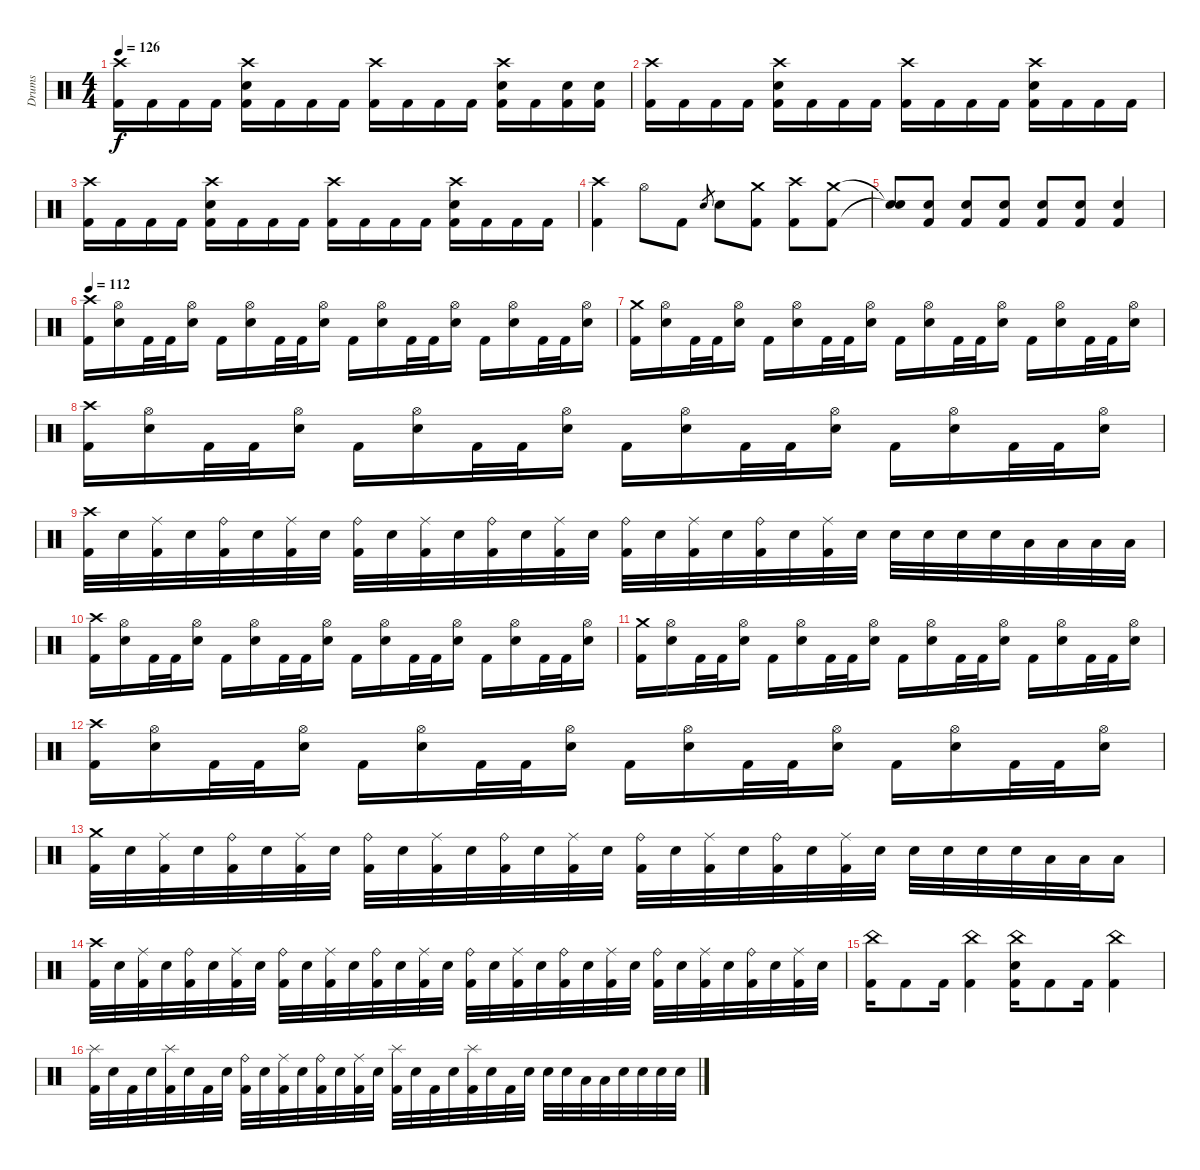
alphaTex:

\track ("Drums" "Drums") {instrument percussion}
\staff {score}
\articulation defaults
\ts (4 4)
\tempo 126
\clef neutral
\ks c
("Crash high (hit)" "Kick (hit) 2").16{dy f} "Kick (hit) 2".16 "Kick (hit) 2".16 "Kick (hit) 2".16 ("Crash high (hit)" "Electric Snare (hit)" "Kick (hit) 2").16 "Kick (hit) 2".16 "Kick (hit) 2".16 "Kick (hit) 2".16 ("Crash high (hit)" "Kick (hit) 2").16 "Kick (hit) 2".16 "Kick (hit) 2".16 "Kick (hit) 2".16 ("Crash high (hit)" "Electric Snare (hit)" "Kick (hit) 2").16 "Kick (hit) 2".16 ("Electric Snare (hit)" "Kick (hit) 2").16 ("Electric Snare (hit)" "Kick (hit) 2").16 |
("Crash high (hit)" "Kick (hit) 2").16 "Kick (hit) 2".16 "Kick (hit) 2".16 "Kick (hit) 2".16 ("Crash high (hit)" "Electric Snare (hit)" "Kick (hit) 2").16 "Kick (hit) 2".16 "Kick (hit) 2".16 "Kick (hit) 2".16 ("Crash high (hit)" "Kick (hit) 2").16 "Kick (hit) 2".16 "Kick (hit) 2".16 "Kick (hit) 2".16 ("Crash high (hit)" "Electric Snare (hit)" "Kick (hit) 2").16 "Kick (hit) 2".16 "Kick (hit) 2".16 "Kick (hit) 2".16 |
("Crash high (hit)" "Kick (hit) 2").16 "Kick (hit) 2".16 "Kick (hit) 2".16 "Kick (hit) 2".16 ("Crash high (hit)" "Electric Snare (hit)" "Kick (hit) 2").16 "Kick (hit) 2".16 "Kick (hit) 2".16 "Kick (hit) 2".16 ("Crash high (hit)" "Kick (hit) 2").16 "Kick (hit) 2".16 "Kick (hit) 2".16 "Kick (hit) 2".16 ("Crash high (hit)" "Electric Snare (hit)" "Kick (hit) 2").16 "Kick (hit) 2".16 "Kick (hit) 2".16 "Kick (hit) 2".16 |
("Crash high (hit)" "Kick (hit) 2").4 "Hi-Hat (open)".8 "Kick (hit) 2".8 "Electric Snare (hit)".8{gr} "Electric Snare (hit)".8 ("Crash medium (hit)" "Kick (hit) 2").8 ("Crash high (hit)" "Kick (hit) 2").8 ("Crash medium (hit)" "Kick (hit) 2").8 |
("Snare (hit)"{t} "Snare (hit)"{t}).8 ("Electric Snare (hit)" "Kick (hit) 2").8 ("Electric Snare (hit)" "Kick (hit) 2").8 ("Electric Snare (hit)" "Kick (hit) 2").8 ("Electric Snare (hit)" "Kick (hit) 2").8 ("Electric Snare (hit)" "Kick (hit) 2").8 ("Electric Snare (hit)" "Kick (hit) 2").4 |
\tempo 112
("Crash high (hit)" "Kick (hit) 2").16 ("Hi-Hat (open)" "Electric Snare (hit)").16 "Kick (hit) 2".32 "Kick (hit) 2".32 ("Hi-Hat (open)" "Electric Snare (hit)").16 "Kick (hit) 2".16 ("Hi-Hat (open)" "Electric Snare (hit)").16 "Kick (hit) 2".32 "Kick (hit) 2".32 ("Hi-Hat (open)" "Electric Snare (hit)").16 "Kick (hit) 2".16 ("Hi-Hat (open)" "Electric Snare (hit)").16 "Kick (hit) 2".32 "Kick (hit) 2".32 ("Hi-Hat (open)" "Electric Snare (hit)").16 "Kick (hit) 2".16 ("Hi-Hat (open)" "Electric Snare (hit)").16 "Kick (hit) 2".32 "Kick (hit) 2".32 ("Hi-Hat (open)" "Electric Snare (hit)").16 |
("Crash medium (hit)" "Kick (hit) 2").16 ("Hi-Hat (open)" "Electric Snare (hit)").16 "Kick (hit) 2".32 "Kick (hit) 2".32 ("Hi-Hat (open)" "Electric Snare (hit)").16 "Kick (hit) 2".16 ("Hi-Hat (open)" "Electric Snare (hit)").16 "Kick (hit) 2".32 "Kick (hit) 2".32 ("Hi-Hat (open)" "Electric Snare (hit)").16 "Kick (hit) 2".16 ("Hi-Hat (open)" "Electric Snare (hit)").16 "Kick (hit) 2".32 "Kick (hit) 2".32 ("Hi-Hat (open)" "Electric Snare (hit)").16 "Kick (hit) 2".16 ("Hi-Hat (open)" "Electric Snare (hit)").16 "Kick (hit) 2".32 "Kick (hit) 2".32 ("Hi-Hat (open)" "Electric Snare (hit)").16 |
("Crash high (hit)" "Kick (hit) 2").16 ("Hi-Hat (open)" "Electric Snare (hit)").16 "Kick (hit) 2".32 "Kick (hit) 2".32 ("Hi-Hat (open)" "Electric Snare (hit)").16 "Kick (hit) 2".16 ("Hi-Hat (open)" "Electric Snare (hit)").16 "Kick (hit) 2".32 "Kick (hit) 2".32 ("Hi-Hat (open)" "Electric Snare (hit)").16 "Kick (hit) 2".16 ("Hi-Hat (open)" "Electric Snare (hit)").16 "Kick (hit) 2".32 "Kick (hit) 2".32 ("Hi-Hat (open)" "Electric Snare (hit)").16 "Kick (hit) 2".16 ("Hi-Hat (open)" "Electric Snare (hit)").16 "Kick (hit) 2".32 "Kick (hit) 2".32 ("Hi-Hat (open)" "Electric Snare (hit)").16 |
("Crash high (hit)" "Kick (hit) 2").32 "Electric Snare (hit)".32 ("Ride (middle)" "Kick (hit) 2").32 "Electric Snare (hit)".32 ("Ride (bell)" "Kick (hit) 2").32 "Electric Snare (hit)".32 ("Ride (middle)" "Kick (hit) 2").32 "Electric Snare (hit)".32 ("Ride (bell)" "Kick (hit) 2").32 "Electric Snare (hit)".32 ("Ride (middle)" "Kick (hit) 2").32 "Electric Snare (hit)".32 ("Ride (bell)" "Kick (hit) 2").32 "Electric Snare (hit)".32 ("Ride (middle)" "Kick (hit) 2").32 "Electric Snare (hit)".32 ("Ride (bell)" "Kick (hit) 2").32 "Electric Snare (hit)".32 ("Ride (middle)" "Kick (hit) 2").32 "Electric Snare (hit)".32 ("Ride (bell)" "Kick (hit) 2").32 "Electric Snare (hit)".32 ("Ride (middle)" "Kick (hit) 2").32 "Electric Snare (hit)".32 "Electric Snare (hit)".32 "Electric Snare (hit)".32 "Electric Snare (hit)".32 "Electric Snare (hit)".32 "Low Tom (hit)".32 "Low Tom (hit)".32 "Low Tom (hit)".32 "Low Tom (hit)".32 |
("Crash high (hit)" "Kick (hit) 2").16 ("Hi-Hat (open)" "Electric Snare (hit)").16 "Kick (hit) 2".32 "Kick (hit) 2".32 ("Hi-Hat (open)" "Electric Snare (hit)").16 "Kick (hit) 2".16 ("Hi-Hat (open)" "Electric Snare (hit)").16 "Kick (hit) 2".32 "Kick (hit) 2".32 ("Hi-Hat (open)" "Electric Snare (hit)").16 "Kick (hit) 2".16 ("Hi-Hat (open)" "Electric Snare (hit)").16 "Kick (hit) 2".32 "Kick (hit) 2".32 ("Hi-Hat (open)" "Electric Snare (hit)").16 "Kick (hit) 2".16 ("Hi-Hat (open)" "Electric Snare (hit)").16 "Kick (hit) 2".32 "Kick (hit) 2".32 ("Hi-Hat (open)" "Electric Snare (hit)").16 |
("Crash medium (hit)" "Kick (hit) 2").16 ("Hi-Hat (open)" "Electric Snare (hit)").16 "Kick (hit) 2".32 "Kick (hit) 2".32 ("Hi-Hat (open)" "Electric Snare (hit)").16 "Kick (hit) 2".16 ("Hi-Hat (open)" "Electric Snare (hit)").16 "Kick (hit) 2".32 "Kick (hit) 2".32 ("Hi-Hat (open)" "Electric Snare (hit)").16 "Kick (hit) 2".16 ("Hi-Hat (open)" "Electric Snare (hit)").16 "Kick (hit) 2".32 "Kick (hit) 2".32 ("Hi-Hat (open)" "Electric Snare (hit)").16 "Kick (hit) 2".16 ("Hi-Hat (open)" "Electric Snare (hit)").16 "Kick (hit) 2".32 "Kick (hit) 2".32 ("Hi-Hat (open)" "Electric Snare (hit)").16 |
("Crash high (hit)" "Kick (hit) 2").16 ("Hi-Hat (open)" "Electric Snare (hit)").16 "Kick (hit) 2".32 "Kick (hit) 2".32 ("Hi-Hat (open)" "Electric Snare (hit)").16 "Kick (hit) 2".16 ("Hi-Hat (open)" "Electric Snare (hit)").16 "Kick (hit) 2".32 "Kick (hit) 2".32 ("Hi-Hat (open)" "Electric Snare (hit)").16 "Kick (hit) 2".16 ("Hi-Hat (open)" "Electric Snare (hit)").16 "Kick (hit) 2".32 "Kick (hit) 2".32 ("Hi-Hat (open)" "Electric Snare (hit)").16 "Kick (hit) 2".16 ("Hi-Hat (open)" "Electric Snare (hit)").16 "Kick (hit) 2".32 "Kick (hit) 2".32 ("Hi-Hat (open)" "Electric Snare (hit)").16 |
("Crash medium (hit)" "Kick (hit) 2").32 "Electric Snare (hit)".32 ("Ride (middle)" "Kick (hit) 2").32 "Electric Snare (hit)".32 ("Ride (bell)" "Kick (hit) 2").32 "Electric Snare (hit)".32 ("Ride (middle)" "Kick (hit) 2").32 "Electric Snare (hit)".32 ("Ride (bell)" "Kick (hit) 2").32 "Electric Snare (hit)".32 ("Ride (middle)" "Kick (hit) 2").32 "Electric Snare (hit)".32 ("Ride (bell)" "Kick (hit) 2").32 "Electric Snare (hit)".32 ("Ride (middle)" "Kick (hit) 2").32 "Electric Snare (hit)".32 ("Ride (bell)" "Kick (hit) 2").32 "Electric Snare (hit)".32 ("Ride (middle)" "Kick (hit) 2").32 "Electric Snare (hit)".32 ("Ride (bell)" "Kick (hit) 2").32 "Electric Snare (hit)".32 ("Ride (middle)" "Kick (hit) 2").32 "Electric Snare (hit)".32 "Electric Snare (hit)".32 "Electric Snare (hit)".32 "Electric Snare (hit)".32 "Electric Snare (hit)".32 "Low Tom (hit)".32 "Low Tom (hit)".32 "Low Tom (hit)".16 |
("Crash high (hit)" "Kick (hit) 2").32 "Electric Snare (hit)".32 ("Ride (middle)" "Kick (hit) 2").32 "Electric Snare (hit)".32 ("Ride (bell)" "Kick (hit) 2").32 "Electric Snare (hit)".32 ("Ride (middle)" "Kick (hit) 2").32 "Electric Snare (hit)".32 ("Ride (bell)" "Kick (hit) 2").32 "Electric Snare (hit)".32 ("Ride (middle)" "Kick (hit) 2").32 "Electric Snare (hit)".32 ("Ride (bell)" "Kick (hit) 2").32 "Electric Snare (hit)".32 ("Ride (middle)" "Kick (hit) 2").32 "Electric Snare (hit)".32 ("Ride (bell)" "Kick (hit) 2").32 "Electric Snare (hit)".32 ("Ride (middle)" "Kick (hit) 2").32 "Electric Snare (hit)".32 ("Ride (bell)" "Kick (hit) 2").32 "Electric Snare (hit)".32 ("Ride (middle)" "Kick (hit) 2").32 "Electric Snare (hit)".32 ("Ride (bell)" "Kick (hit) 2").32 "Electric Snare (hit)".32 ("Ride (middle)" "Kick (hit) 2").32 "Electric Snare (hit)".32 ("Ride (bell)" "Kick (hit) 2").32 "Electric Snare (hit)".32 ("Ride (middle)" "Kick (hit) 2").32 "Electric Snare (hit)".32 |
("China (hit)" "Kick (hit) 2").16 "Kick (hit) 2".8 "Kick (hit) 2".16 ("China (hit)" "Kick (hit) 2").4 ("China (hit)" "Electric Snare (hit)" "Kick (hit) 2").16 "Kick (hit) 2".8 "Kick (hit) 2".16 ("China (hit)" "Kick (hit) 2").4 |
("Splash (hit)" "Kick (hit) 2").32 "Electric Snare (hit)".32 "Kick (hit) 2".32 "Electric Snare (hit)".32 ("Splash (hit)" "Kick (hit) 2").32 "Electric Snare (hit)".32 "Kick (hit) 2".32 "Electric Snare (hit)".32 ("Ride (bell)" "Kick (hit) 2").32 "Electric Snare (hit)".32 ("Ride (middle)" "Kick (hit) 2").32 "Electric Snare (hit)".32 ("Ride (bell)" "Kick (hit) 2").32 "Electric Snare (hit)".32 ("Ride (middle)" "Kick (hit) 2").32 "Electric Snare (hit)".32 ("Splash (hit)" "Kick (hit) 2").32 "Electric Snare (hit)".32 "Kick (hit) 2".32 "Electric Snare (hit)".32 ("Splash (hit)" "Kick (hit) 2").32 "Electric Snare (hit)".32 "Kick (hit) 2".32 "Electric Snare (hit)".32 "Electric Snare (hit)".32 "Electric Snare (hit)".32 "Low Tom (hit)".32 "Low Tom (hit)".32 "Electric Snare (hit)".32 "Electric Snare (hit)".32 "Electric Snare (hit)".32 "Electric Snare (hit)".32
